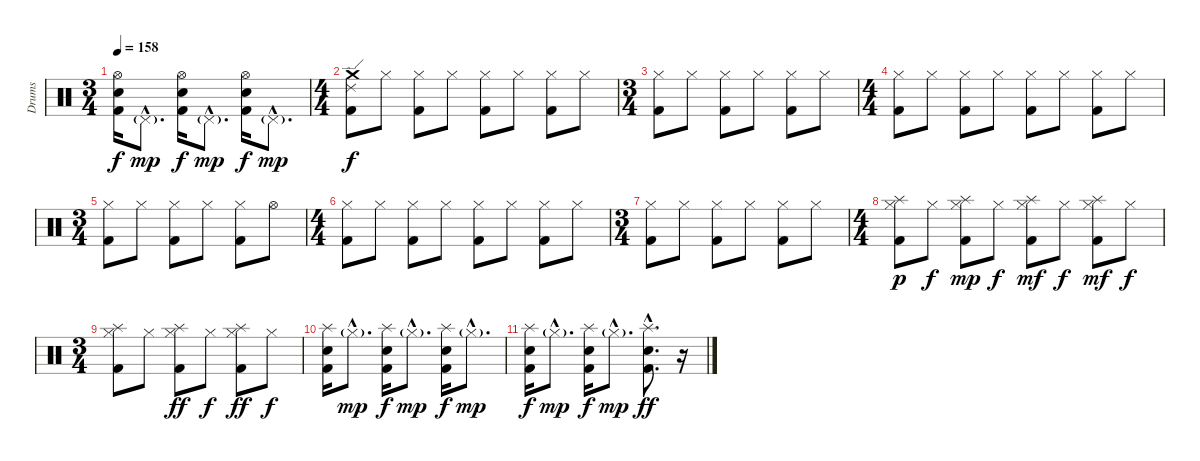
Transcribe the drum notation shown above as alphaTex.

\track ("Drums" "Drums") {instrument percussion}
\staff {score}
\articulation defaults
\ts (3 4)
\tempo 158
\clef neutral
\ks c
("Hi-Hat (open)" "Snare (hit) 2" "Kick (hit) 2").16{dy f} "Pedal Hi-Hat (hit)"{g hac}.8{d dy mp} ("Hi-Hat (open)" "Snare (hit) 2" "Kick (hit) 2").16{dy f} "Pedal Hi-Hat (hit)"{g hac}.8{d dy mp} ("Hi-Hat (open)" "Snare (hit) 2" "Kick (hit) 2").16{dy f} "Pedal Hi-Hat (hit)"{g hac}.8{d dy mp} |
\ts (4 4)
("Ride (edge) 2" "Crash medium (hit)" "Kick (hit) 2").8{dy f} "Hi-Hat (closed)".8 ("Hi-Hat (closed)" "Kick (hit) 2").8 "Hi-Hat (closed)".8 ("Hi-Hat (closed)" "Kick (hit) 2").8 "Hi-Hat (closed)".8 ("Hi-Hat (closed)" "Kick (hit) 2").8 "Hi-Hat (closed)".8 |
\ts (3 4)
("Hi-Hat (closed)" "Kick (hit) 2").8 "Hi-Hat (closed)".8 ("Hi-Hat (closed)" "Kick (hit) 2").8 "Hi-Hat (closed)".8 ("Hi-Hat (closed)" "Kick (hit) 2").8 "Hi-Hat (closed)".8 |
\ts (4 4)
("Hi-Hat (closed)" "Kick (hit) 2").8 "Hi-Hat (closed)".8 ("Hi-Hat (closed)" "Kick (hit) 2").8 "Hi-Hat (closed)".8 ("Hi-Hat (closed)" "Kick (hit) 2").8 "Hi-Hat (closed)".8 ("Hi-Hat (closed)" "Kick (hit) 2").8 "Hi-Hat (closed)".8 |
\ts (3 4)
("Hi-Hat (closed)" "Kick (hit) 2").8 "Hi-Hat (closed)".8 ("Hi-Hat (closed)" "Kick (hit) 2").8 "Hi-Hat (closed)".8 ("Hi-Hat (closed)" "Kick (hit) 2").8 "Hi-Hat (open)".8 |
\ts (4 4)
("Hi-Hat (closed)" "Kick (hit) 2").8 "Hi-Hat (closed)".8 ("Hi-Hat (closed)" "Kick (hit) 2").8 "Hi-Hat (closed)".8 ("Hi-Hat (closed)" "Kick (hit) 2").8 "Hi-Hat (closed)".8 ("Hi-Hat (closed)" "Kick (hit) 2").8 "Hi-Hat (closed)".8 |
\ts (3 4)
("Hi-Hat (closed)" "Kick (hit) 2").8 "Hi-Hat (closed)".8 ("Hi-Hat (closed)" "Kick (hit) 2").8 "Hi-Hat (closed)".8 ("Hi-Hat (closed)" "Kick (hit) 2").8 "Hi-Hat (closed)".8 |
\ts (4 4)
("Hi-Hat (closed)" "Splash (hit)" "Kick (hit) 2").8{dy p} "Hi-Hat (closed)".8{dy f} ("Hi-Hat (closed)" "Splash (hit)" "Kick (hit) 2").8{dy mp} "Hi-Hat (closed)".8{dy f} ("Hi-Hat (closed)" "Splash (hit)" "Kick (hit) 2").8{dy mf} "Hi-Hat (closed)".8{dy f} ("Hi-Hat (closed)" "Splash (hit)" "Kick (hit) 2").8{dy mf} "Hi-Hat (closed)".8{dy f} |
\ts (3 4)
("Hi-Hat (closed)" "Splash (hit)" "Kick (hit) 2").8 "Hi-Hat (closed)".8 ("Hi-Hat (closed)" "Splash (hit)" "Kick (hit) 2").8{dy ff} "Hi-Hat (closed)".8{dy f} ("Hi-Hat (closed)" "Splash (hit)" "Kick (hit) 2").8{dy ff} "Hi-Hat (closed)".8{dy f} |
("Splash (hit)" "Snare (hit) 2" "Kick (hit) 2").16 "Hi-Hat (closed)"{g hac}.8{d dy mp} ("Splash (hit)" "Snare (hit) 2" "Kick (hit) 2").16{dy f} "Hi-Hat (closed)"{g hac}.8{d dy mp} ("Splash (hit)" "Snare (hit) 2" "Kick (hit) 2").16{dy f} "Hi-Hat (closed)"{g hac}.8{d dy mp} |
("Splash (hit)" "Snare (hit) 2" "Kick (hit) 2").16{dy f} "Hi-Hat (closed)"{g hac}.8{d dy mp} ("Splash (hit)" "Snare (hit) 2" "Kick (hit) 2").16{dy f} "Hi-Hat (closed)"{g hac}.8{d dy mp} ("Splash (hit)"{hac} "Snare (hit) 2"{hac} "Kick (hit) 2"{hac}).8{d dy ff} r.16
